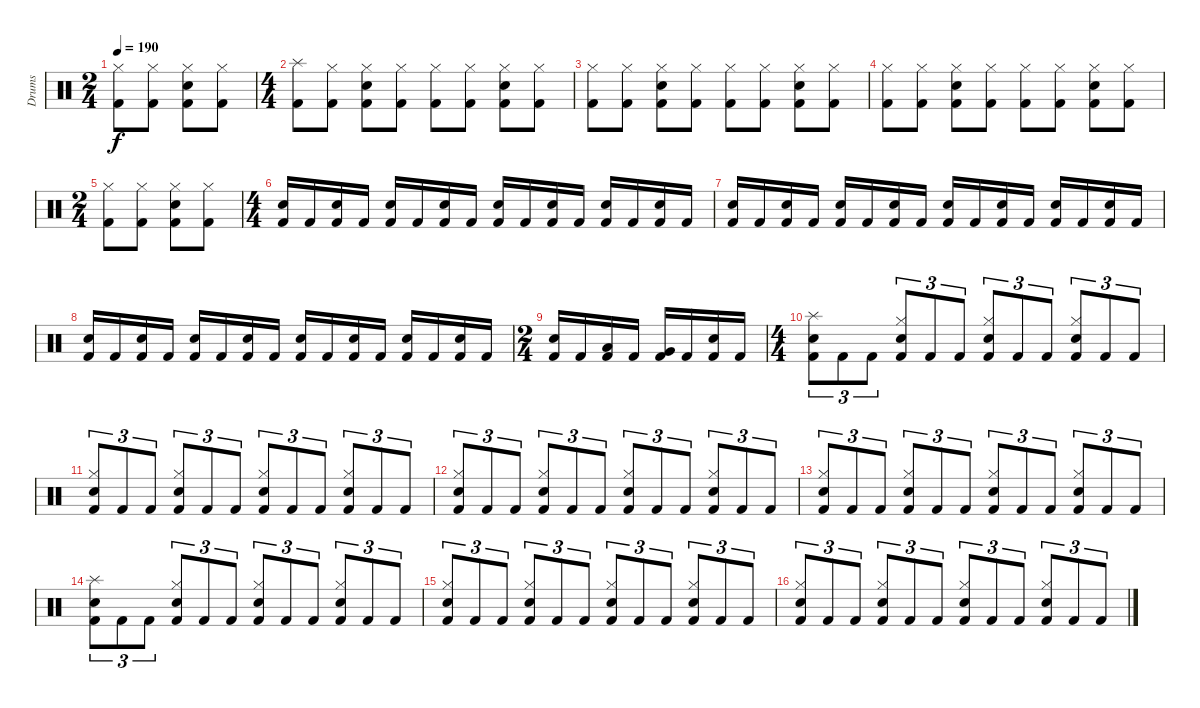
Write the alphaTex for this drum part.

\track ("Drums" "Drums") {instrument percussion}
\staff {score}
\articulation defaults
\ts (2 4)
\tempo 190
\clef neutral
\ks c
("Kick (hit) 2" "Hi-Hat (closed)").8{dy f} ("Kick (hit) 2" "Hi-Hat (closed)").8 ("Kick (hit) 2" "Hi-Hat (closed)" "Electric Snare (hit)").8 ("Kick (hit) 2" "Hi-Hat (closed)").8 |
\ts (4 4)
("Kick (hit) 2" "Splash (hit)").8 ("Kick (hit) 2" "Hi-Hat (closed)").8 ("Kick (hit) 2" "Hi-Hat (closed)" "Electric Snare (hit)").8 ("Kick (hit) 2" "Hi-Hat (closed)").8 ("Kick (hit) 2" "Hi-Hat (closed)").8 ("Kick (hit) 2" "Hi-Hat (closed)").8 ("Kick (hit) 2" "Hi-Hat (closed)" "Electric Snare (hit)").8 ("Kick (hit) 2" "Hi-Hat (closed)").8 |
("Kick (hit) 2" "Hi-Hat (closed)").8 ("Kick (hit) 2" "Hi-Hat (closed)").8 ("Kick (hit) 2" "Hi-Hat (closed)" "Electric Snare (hit)").8 ("Kick (hit) 2" "Hi-Hat (closed)").8 ("Kick (hit) 2" "Hi-Hat (closed)").8 ("Kick (hit) 2" "Hi-Hat (closed)").8 ("Kick (hit) 2" "Hi-Hat (closed)" "Electric Snare (hit)").8 ("Kick (hit) 2" "Hi-Hat (closed)").8 |
("Kick (hit) 2" "Hi-Hat (closed)").8 ("Kick (hit) 2" "Hi-Hat (closed)").8 ("Kick (hit) 2" "Hi-Hat (closed)" "Electric Snare (hit)").8 ("Kick (hit) 2" "Hi-Hat (closed)").8 ("Kick (hit) 2" "Hi-Hat (closed)").8 ("Kick (hit) 2" "Hi-Hat (closed)").8 ("Kick (hit) 2" "Hi-Hat (closed)" "Electric Snare (hit)").8 ("Kick (hit) 2" "Hi-Hat (closed)").8 |
\ts (2 4)
("Kick (hit) 2" "Hi-Hat (closed)").8 ("Kick (hit) 2" "Hi-Hat (closed)").8 ("Kick (hit) 2" "Hi-Hat (closed)" "Electric Snare (hit)").8 ("Kick (hit) 2" "Hi-Hat (closed)").8 |
\ts (4 4)
("Kick (hit) 2" "Electric Snare (hit)").16 "Kick (hit) 2".16 ("Kick (hit) 2" "Electric Snare (hit)").16 "Kick (hit) 2".16 ("Kick (hit) 2" "Electric Snare (hit)").16 "Kick (hit) 2".16 ("Kick (hit) 2" "Electric Snare (hit)").16 "Kick (hit) 2".16 ("Kick (hit) 2" "Electric Snare (hit)").16 "Kick (hit) 2".16 ("Kick (hit) 2" "Electric Snare (hit)").16 "Kick (hit) 2".16 ("Kick (hit) 2" "Electric Snare (hit)").16 "Kick (hit) 2".16 ("Kick (hit) 2" "Electric Snare (hit)").16 "Kick (hit) 2".16 |
("Kick (hit) 2" "Electric Snare (hit)").16 "Kick (hit) 2".16 ("Kick (hit) 2" "Electric Snare (hit)").16 "Kick (hit) 2".16 ("Kick (hit) 2" "Electric Snare (hit)").16 "Kick (hit) 2".16 ("Kick (hit) 2" "Electric Snare (hit)").16 "Kick (hit) 2".16 ("Kick (hit) 2" "Electric Snare (hit)").16 "Kick (hit) 2".16 ("Kick (hit) 2" "Electric Snare (hit)").16 "Kick (hit) 2".16 ("Kick (hit) 2" "Electric Snare (hit)").16 "Kick (hit) 2".16 ("Kick (hit) 2" "Electric Snare (hit)").16 "Kick (hit) 2".16 |
("Kick (hit) 2" "Electric Snare (hit)").16 "Kick (hit) 2".16 ("Kick (hit) 2" "Electric Snare (hit)").16 "Kick (hit) 2".16 ("Kick (hit) 2" "Electric Snare (hit)").16 "Kick (hit) 2".16 ("Kick (hit) 2" "Electric Snare (hit)").16 "Kick (hit) 2".16 ("Kick (hit) 2" "Electric Snare (hit)").16 "Kick (hit) 2".16 ("Kick (hit) 2" "Electric Snare (hit)").16 "Kick (hit) 2".16 ("Kick (hit) 2" "Electric Snare (hit)").16 "Kick (hit) 2".16 ("Kick (hit) 2" "Electric Snare (hit)").16 "Kick (hit) 2".16 |
\ts (2 4)
("Kick (hit) 2" "Electric Snare (hit)").16 "Kick (hit) 2".16 ("Kick (hit) 2" "Low Tom (hit)").16 "Kick (hit) 2".16 ("Kick (hit) 2" "Very Low Tom (hit)").16 "Kick (hit) 2".16 ("Kick (hit) 2" "Electric Snare (hit)").16 "Kick (hit) 2".16 |
\ts (4 4)
("Kick (hit) 2" "Electric Snare (hit)" "Splash (hit)").8{tu (3 2)} "Kick (hit) 2".8{tu (3 2)} "Kick (hit) 2".8{tu (3 2)} ("Kick (hit) 2" "Electric Snare (hit)" "Hi-Hat (closed)").8{tu (3 2)} "Kick (hit) 2".8{tu (3 2)} "Kick (hit) 2".8{tu (3 2)} ("Kick (hit) 2" "Electric Snare (hit)" "Hi-Hat (closed)").8{tu (3 2)} "Kick (hit) 2".8{tu (3 2)} "Kick (hit) 2".8{tu (3 2)} ("Kick (hit) 2" "Electric Snare (hit)" "Hi-Hat (closed)").8{tu (3 2)} "Kick (hit) 2".8{tu (3 2)} "Kick (hit) 2".8{tu (3 2)} |
("Kick (hit) 2" "Electric Snare (hit)" "Hi-Hat (closed)").8{tu (3 2)} "Kick (hit) 2".8{tu (3 2)} "Kick (hit) 2".8{tu (3 2)} ("Kick (hit) 2" "Electric Snare (hit)" "Hi-Hat (closed)").8{tu (3 2)} "Kick (hit) 2".8{tu (3 2)} "Kick (hit) 2".8{tu (3 2)} ("Kick (hit) 2" "Electric Snare (hit)" "Hi-Hat (closed)").8{tu (3 2)} "Kick (hit) 2".8{tu (3 2)} "Kick (hit) 2".8{tu (3 2)} ("Kick (hit) 2" "Electric Snare (hit)" "Hi-Hat (closed)").8{tu (3 2)} "Kick (hit) 2".8{tu (3 2)} "Kick (hit) 2".8{tu (3 2)} |
("Kick (hit) 2" "Electric Snare (hit)" "Hi-Hat (closed)").8{tu (3 2)} "Kick (hit) 2".8{tu (3 2)} "Kick (hit) 2".8{tu (3 2)} ("Kick (hit) 2" "Electric Snare (hit)" "Hi-Hat (closed)").8{tu (3 2)} "Kick (hit) 2".8{tu (3 2)} "Kick (hit) 2".8{tu (3 2)} ("Kick (hit) 2" "Electric Snare (hit)" "Hi-Hat (closed)").8{tu (3 2)} "Kick (hit) 2".8{tu (3 2)} "Kick (hit) 2".8{tu (3 2)} ("Kick (hit) 2" "Electric Snare (hit)" "Hi-Hat (closed)").8{tu (3 2)} "Kick (hit) 2".8{tu (3 2)} "Kick (hit) 2".8{tu (3 2)} |
("Kick (hit) 2" "Electric Snare (hit)" "Hi-Hat (closed)").8{tu (3 2)} "Kick (hit) 2".8{tu (3 2)} "Kick (hit) 2".8{tu (3 2)} ("Kick (hit) 2" "Electric Snare (hit)" "Hi-Hat (closed)").8{tu (3 2)} "Kick (hit) 2".8{tu (3 2)} "Kick (hit) 2".8{tu (3 2)} ("Kick (hit) 2" "Electric Snare (hit)" "Hi-Hat (closed)").8{tu (3 2)} "Kick (hit) 2".8{tu (3 2)} "Kick (hit) 2".8{tu (3 2)} ("Kick (hit) 2" "Electric Snare (hit)" "Hi-Hat (closed)").8{tu (3 2)} "Kick (hit) 2".8{tu (3 2)} "Kick (hit) 2".8{tu (3 2)} |
("Kick (hit) 2" "Electric Snare (hit)" "Splash (hit)").8{tu (3 2)} "Kick (hit) 2".8{tu (3 2)} "Kick (hit) 2".8{tu (3 2)} ("Kick (hit) 2" "Electric Snare (hit)" "Hi-Hat (closed)").8{tu (3 2)} "Kick (hit) 2".8{tu (3 2)} "Kick (hit) 2".8{tu (3 2)} ("Kick (hit) 2" "Electric Snare (hit)" "Hi-Hat (closed)").8{tu (3 2)} "Kick (hit) 2".8{tu (3 2)} "Kick (hit) 2".8{tu (3 2)} ("Kick (hit) 2" "Electric Snare (hit)" "Hi-Hat (closed)").8{tu (3 2)} "Kick (hit) 2".8{tu (3 2)} "Kick (hit) 2".8{tu (3 2)} |
("Kick (hit) 2" "Electric Snare (hit)" "Hi-Hat (closed)").8{tu (3 2)} "Kick (hit) 2".8{tu (3 2)} "Kick (hit) 2".8{tu (3 2)} ("Kick (hit) 2" "Electric Snare (hit)" "Hi-Hat (closed)").8{tu (3 2)} "Kick (hit) 2".8{tu (3 2)} "Kick (hit) 2".8{tu (3 2)} ("Kick (hit) 2" "Electric Snare (hit)" "Hi-Hat (closed)").8{tu (3 2)} "Kick (hit) 2".8{tu (3 2)} "Kick (hit) 2".8{tu (3 2)} ("Kick (hit) 2" "Electric Snare (hit)" "Hi-Hat (closed)").8{tu (3 2)} "Kick (hit) 2".8{tu (3 2)} "Kick (hit) 2".8{tu (3 2)} |
("Kick (hit) 2" "Electric Snare (hit)" "Hi-Hat (closed)").8{tu (3 2)} "Kick (hit) 2".8{tu (3 2)} "Kick (hit) 2".8{tu (3 2)} ("Kick (hit) 2" "Electric Snare (hit)" "Hi-Hat (closed)").8{tu (3 2)} "Kick (hit) 2".8{tu (3 2)} "Kick (hit) 2".8{tu (3 2)} ("Kick (hit) 2" "Electric Snare (hit)" "Hi-Hat (closed)").8{tu (3 2)} "Kick (hit) 2".8{tu (3 2)} "Kick (hit) 2".8{tu (3 2)} ("Kick (hit) 2" "Electric Snare (hit)" "Hi-Hat (closed)").8{tu (3 2)} "Kick (hit) 2".8{tu (3 2)} "Kick (hit) 2".8{tu (3 2)}
